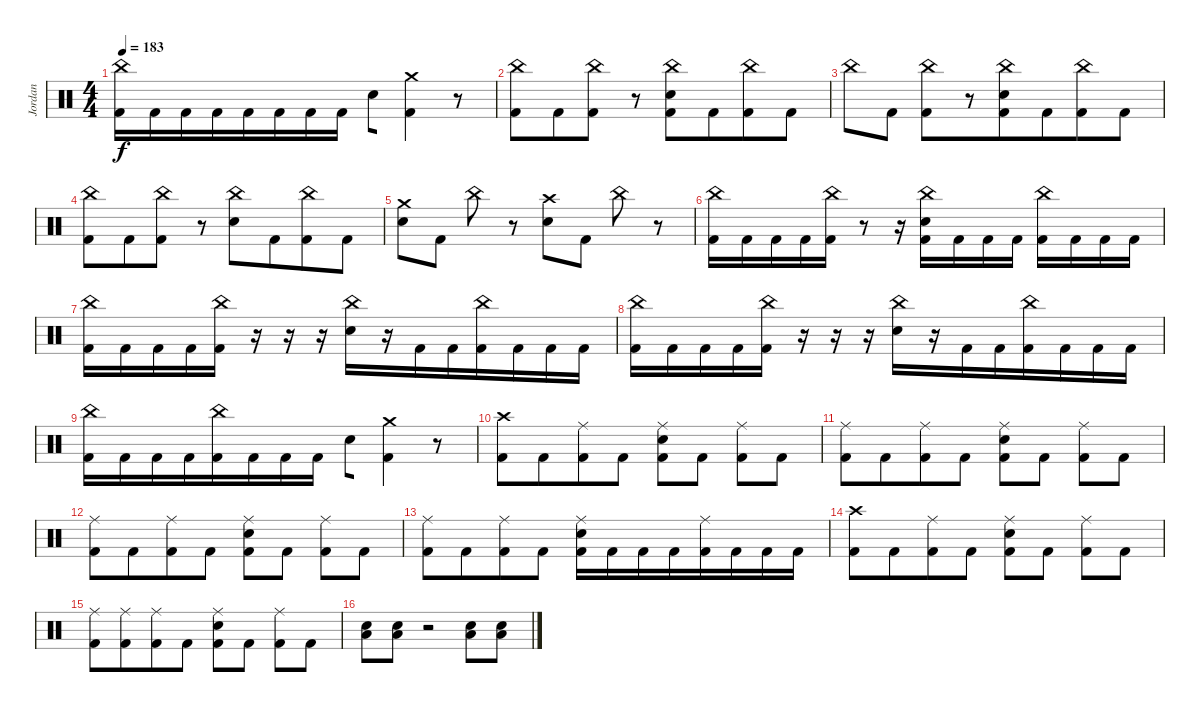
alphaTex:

\track ("Jordan" "Jordan") {instrument percussion bank 82}
\staff {score}
\articulation defaults
\ts (4 4)
\tempo 183
\clef neutral
\ks c
("China (hit)" "Kick (hit) 2").16{dy f} "Kick (hit) 2".16{beam merge} "Kick (hit) 2".16{beam merge} "Kick (hit) 2".16{beam merge} "Kick (hit) 2".16{beam merge} "Kick (hit) 2".16 "Kick (hit) 2".16 "Kick (hit) 2".16 "Snare (hit) 2".8{beam merge} ("Crash medium (hit)" "Kick (hit) 2").4 r.8 |
("China (hit)" "Kick (hit) 2").8 "Kick (hit) 2".8{beam merge} ("China (hit)" "Kick (hit) 2").8 r.8{beam merge} ("China (hit)" "Snare (hit) 2" "Kick (hit) 2").8 "Kick (hit) 2".8{beam merge} ("China (hit)" "Kick (hit) 2").8 "Kick (hit) 2".8 |
"China (hit)".8 "Kick (hit) 2".8 ("China (hit)" "Kick (hit) 2").8{beam merge} r.8 ("China (hit)" "Snare (hit) 2" "Kick (hit) 2").8 "Kick (hit) 2".8{beam merge} ("China (hit)" "Kick (hit) 2").8 "Kick (hit) 2".8 |
("China (hit)" "Kick (hit) 2").8 "Kick (hit) 2".8{beam merge} ("China (hit)" "Kick (hit) 2").8 r.8{beam merge} ("China (hit)" "Snare (hit) 2").8 "Kick (hit) 2".8{beam merge} ("China (hit)" "Kick (hit) 2").8 "Kick (hit) 2".8 |
("Crash medium (hit)" "Snare (hit) 2").8{beam merge} "Kick (hit) 2".8 "China (hit)".8 r.8 ("Crash high (hit)" "Snare (hit) 2").8{beam merge} "Kick (hit) 2".8 "China (hit)".8 r.8 |
("China (hit)" "Kick (hit) 2").16 "Kick (hit) 2".16{beam merge} "Kick (hit) 2".16{beam merge} "Kick (hit) 2".16{beam merge} ("China (hit)" "Kick (hit) 2").16 r.8 r.16{beam merge} ("China (hit)" "Snare (hit) 2" "Kick (hit) 2").16{beam merge} "Kick (hit) 2".16{beam merge} "Kick (hit) 2".16{beam merge} "Kick (hit) 2".16 ("China (hit)" "Kick (hit) 2").16 "Kick (hit) 2".16{beam merge} "Kick (hit) 2".16{beam merge} "Kick (hit) 2".16 |
("China (hit)" "Kick (hit) 2").16 "Kick (hit) 2".16{beam merge} "Kick (hit) 2".16{beam merge} "Kick (hit) 2".16{beam merge} ("China (hit)" "Kick (hit) 2").16 r.16 r.16 r.16{beam merge} ("China (hit)" "Snare (hit) 2").16{beam merge} r.16{beam merge} "Kick (hit) 2".16{beam merge} "Kick (hit) 2".16{beam merge} ("China (hit)" "Kick (hit) 2").16 "Kick (hit) 2".16{beam merge} "Kick (hit) 2".16{beam merge} "Kick (hit) 2".16 |
("China (hit)" "Kick (hit) 2").16 "Kick (hit) 2".16{beam merge} "Kick (hit) 2".16{beam merge} "Kick (hit) 2".16{beam merge} ("China (hit)" "Kick (hit) 2").16 r.16 r.16 r.16{beam merge} ("China (hit)" "Snare (hit) 2").16{beam merge} r.16{beam merge} "Kick (hit) 2".16{beam merge} "Kick (hit) 2".16{beam merge} ("China (hit)" "Kick (hit) 2").16 "Kick (hit) 2".16{beam merge} "Kick (hit) 2".16{beam merge} "Kick (hit) 2".16 |
("China (hit)" "Kick (hit) 2").16 "Kick (hit) 2".16{beam merge} "Kick (hit) 2".16{beam merge} "Kick (hit) 2".16{beam merge} ("China (hit)" "Kick (hit) 2").16{beam merge} "Kick (hit) 2".16 "Kick (hit) 2".16 "Kick (hit) 2".16 "Snare (hit) 2".8{beam merge} ("Crash medium (hit)" "Kick (hit) 2").4 r.8 |
("Crash high (hit)" "Kick (hit) 2").8{beam merge} "Kick (hit) 2".8{beam merge} ("Ride (middle)" "Kick (hit) 2").8{beam merge} "Kick (hit) 2".8 ("Ride (middle)" "Snare (hit) 2" "Kick (hit) 2").8 "Kick (hit) 2".8 ("Ride (middle)" "Kick (hit) 2").8 "Kick (hit) 2".8 |
("Ride (middle)" "Kick (hit) 2").8{beam merge} "Kick (hit) 2".8{beam merge} ("Ride (middle)" "Kick (hit) 2").8{beam merge} "Kick (hit) 2".8 ("Ride (middle)" "Snare (hit) 2" "Kick (hit) 2").8 "Kick (hit) 2".8 ("Ride (middle)" "Kick (hit) 2").8 "Kick (hit) 2".8 |
("Ride (middle)" "Kick (hit) 2").8{beam merge} "Kick (hit) 2".8{beam merge} ("Ride (middle)" "Kick (hit) 2").8{beam merge} "Kick (hit) 2".8 ("Ride (middle)" "Snare (hit) 2" "Kick (hit) 2").8 "Kick (hit) 2".8 ("Ride (middle)" "Kick (hit) 2").8 "Kick (hit) 2".8 |
("Ride (middle)" "Kick (hit) 2").8{beam merge} "Kick (hit) 2".8{beam merge} ("Ride (middle)" "Kick (hit) 2").8{beam merge} "Kick (hit) 2".8 ("Ride (middle)" "Snare (hit) 2" "Kick (hit) 2").16 "Kick (hit) 2".16{beam merge} "Kick (hit) 2".16 "Kick (hit) 2".16{beam merge} ("Ride (middle)" "Kick (hit) 2").16 "Kick (hit) 2".16{beam merge} "Kick (hit) 2".16{beam merge} "Kick (hit) 2".16 |
("Crash high (hit)" "Kick (hit) 2").8{beam merge} "Kick (hit) 2".8{beam merge} ("Ride (middle)" "Kick (hit) 2").8{beam merge} "Kick (hit) 2".8 ("Ride (middle)" "Snare (hit) 2" "Kick (hit) 2").8 "Kick (hit) 2".8 ("Ride (middle)" "Kick (hit) 2").8 "Kick (hit) 2".8 |
("Ride (middle)" "Kick (hit) 2").8{beam merge} ("Ride (middle)" "Kick (hit) 2").8{beam merge} ("Ride (middle)" "Kick (hit) 2").8{beam merge} "Kick (hit) 2".8 ("Ride (middle)" "Snare (hit) 2" "Kick (hit) 2").8 "Kick (hit) 2".8 ("Ride (middle)" "Kick (hit) 2").8 "Kick (hit) 2".8 |
("Snare (hit) 2" "Low Tom (hit)").8 ("Snare (hit) 2" "Low Tom (hit)").8 r.2{beam merge} ("Snare (hit) 2" "Low Tom (hit)").8 ("Snare (hit) 2" "Low Tom (hit)").8
